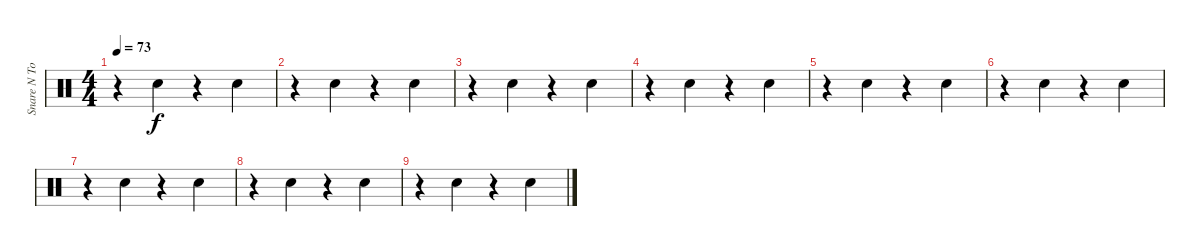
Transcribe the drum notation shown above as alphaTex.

\track ("Snare N Toms" "Snare N To") {instrument percussion}
\staff {score}
\articulation defaults
\ts (4 4)
\tempo 73
\clef neutral
\ks c
r.4{dy f} "Snare (hit) 2".4 r.4 "Snare (hit) 2".4 |
r.4 "Snare (hit) 2".4 r.4 "Snare (hit) 2".4 |
r.4 "Snare (hit) 2".4 r.4 "Snare (hit) 2".4 |
r.4 "Snare (hit) 2".4 r.4 "Snare (hit) 2".4 |
r.4 "Snare (hit) 2".4 r.4 "Snare (hit) 2".4 |
r.4 "Snare (hit) 2".4 r.4 "Snare (hit) 2".4 |
r.4 "Snare (hit) 2".4 r.4 "Snare (hit) 2".4 |
r.4 "Snare (hit) 2".4 r.4 "Snare (hit) 2".4 |
r.4 "Snare (hit) 2".4 r.4 "Snare (hit) 2".4
